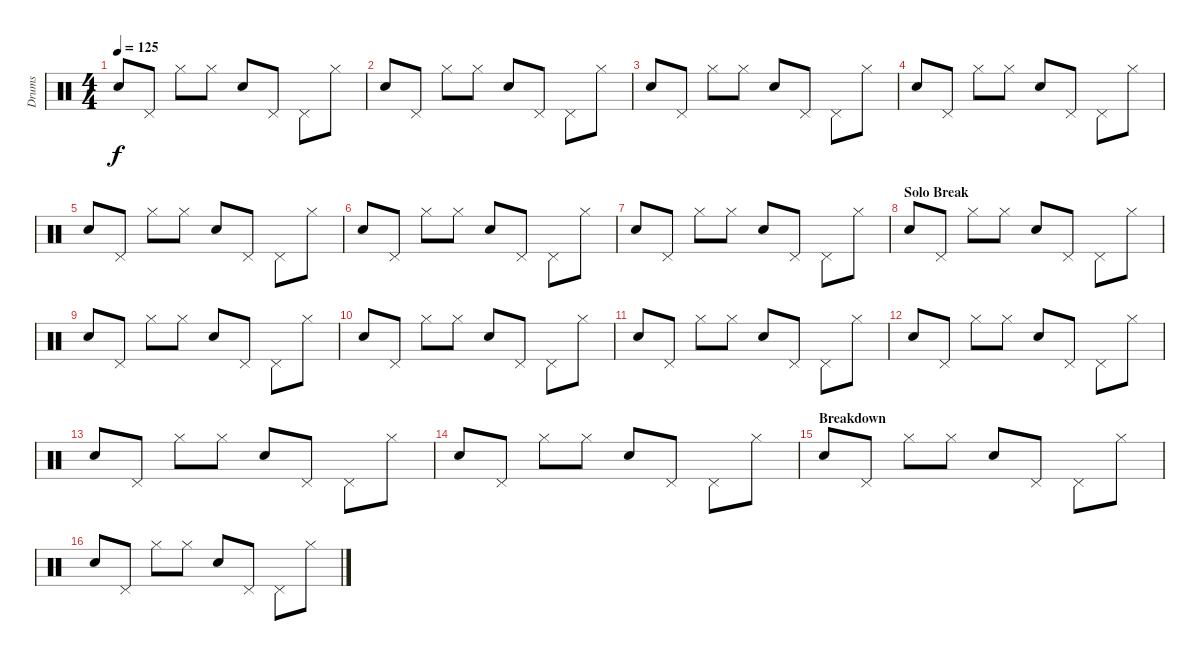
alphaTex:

\track ("Drums" "Drums") {instrument percussion}
\staff {score}
\articulation defaults
\ts (4 4)
\tempo 125
\clef neutral
\ks c "Electric Snare (hit)".8{dy f} "Pedal Hi-Hat (hit)".8 "Hi-Hat (closed)".8 "Hi-Hat (closed)".8 "Electric Snare (hit)".8 "Pedal Hi-Hat (hit)".8 "Pedal Hi-Hat (hit)".8 "Hi-Hat (closed)".8
|
"Electric Snare (hit)".8 "Pedal Hi-Hat (hit)".8 "Hi-Hat (closed)".8 "Hi-Hat (closed)".8 "Electric Snare (hit)".8 "Pedal Hi-Hat (hit)".8 "Pedal Hi-Hat (hit)".8 "Hi-Hat (closed)".8 |
"Electric Snare (hit)".8 "Pedal Hi-Hat (hit)".8 "Hi-Hat (closed)".8 "Hi-Hat (closed)".8 "Electric Snare (hit)".8 "Pedal Hi-Hat (hit)".8 "Pedal Hi-Hat (hit)".8 "Hi-Hat (closed)".8 |
"Electric Snare (hit)".8 "Pedal Hi-Hat (hit)".8 "Hi-Hat (closed)".8 "Hi-Hat (closed)".8 "Electric Snare (hit)".8 "Pedal Hi-Hat (hit)".8 "Pedal Hi-Hat (hit)".8 "Hi-Hat (closed)".8 |
"Electric Snare (hit)".8 "Pedal Hi-Hat (hit)".8 "Hi-Hat (closed)".8 "Hi-Hat (closed)".8 "Electric Snare (hit)".8 "Pedal Hi-Hat (hit)".8 "Pedal Hi-Hat (hit)".8 "Hi-Hat (closed)".8 |
"Electric Snare (hit)".8 "Pedal Hi-Hat (hit)".8 "Hi-Hat (closed)".8 "Hi-Hat (closed)".8 "Electric Snare (hit)".8 "Pedal Hi-Hat (hit)".8 "Pedal Hi-Hat (hit)".8 "Hi-Hat (closed)".8 |
"Electric Snare (hit)".8 "Pedal Hi-Hat (hit)".8 "Hi-Hat (closed)".8 "Hi-Hat (closed)".8 "Electric Snare (hit)".8 "Pedal Hi-Hat (hit)".8 "Pedal Hi-Hat (hit)".8 "Hi-Hat (closed)".8 |
\section ("" "Solo Break")
"Electric Snare (hit)".8 "Pedal Hi-Hat (hit)".8 "Hi-Hat (closed)".8 "Hi-Hat (closed)".8 "Electric Snare (hit)".8 "Pedal Hi-Hat (hit)".8 "Pedal Hi-Hat (hit)".8 "Hi-Hat (closed)".8 |
"Electric Snare (hit)".8 "Pedal Hi-Hat (hit)".8 "Hi-Hat (closed)".8 "Hi-Hat (closed)".8 "Electric Snare (hit)".8 "Pedal Hi-Hat (hit)".8 "Pedal Hi-Hat (hit)".8 "Hi-Hat (closed)".8 |
"Electric Snare (hit)".8 "Pedal Hi-Hat (hit)".8 "Hi-Hat (closed)".8 "Hi-Hat (closed)".8 "Electric Snare (hit)".8 "Pedal Hi-Hat (hit)".8 "Pedal Hi-Hat (hit)".8 "Hi-Hat (closed)".8 |
"Electric Snare (hit)".8 "Pedal Hi-Hat (hit)".8 "Hi-Hat (closed)".8 "Hi-Hat (closed)".8 "Electric Snare (hit)".8 "Pedal Hi-Hat (hit)".8 "Pedal Hi-Hat (hit)".8 "Hi-Hat (closed)".8 |
"Electric Snare (hit)".8 "Pedal Hi-Hat (hit)".8 "Hi-Hat (closed)".8 "Hi-Hat (closed)".8 "Electric Snare (hit)".8 "Pedal Hi-Hat (hit)".8 "Pedal Hi-Hat (hit)".8 "Hi-Hat (closed)".8 |
"Electric Snare (hit)".8 "Pedal Hi-Hat (hit)".8 "Hi-Hat (closed)".8 "Hi-Hat (closed)".8 "Electric Snare (hit)".8 "Pedal Hi-Hat (hit)".8 "Pedal Hi-Hat (hit)".8 "Hi-Hat (closed)".8 |
"Electric Snare (hit)".8 "Pedal Hi-Hat (hit)".8 "Hi-Hat (closed)".8 "Hi-Hat (closed)".8 "Electric Snare (hit)".8 "Pedal Hi-Hat (hit)".8 "Pedal Hi-Hat (hit)".8 "Hi-Hat (closed)".8 |
\section ("" "Breakdown")
"Electric Snare (hit)".8 "Pedal Hi-Hat (hit)".8 "Hi-Hat (closed)".8 "Hi-Hat (closed)".8 "Electric Snare (hit)".8 "Pedal Hi-Hat (hit)".8 "Pedal Hi-Hat (hit)".8 "Hi-Hat (closed)".8 |
"Electric Snare (hit)".8 "Pedal Hi-Hat (hit)".8 "Hi-Hat (closed)".8 "Hi-Hat (closed)".8 "Electric Snare (hit)".8 "Pedal Hi-Hat (hit)".8 "Pedal Hi-Hat (hit)".8 "Hi-Hat (closed)".8
